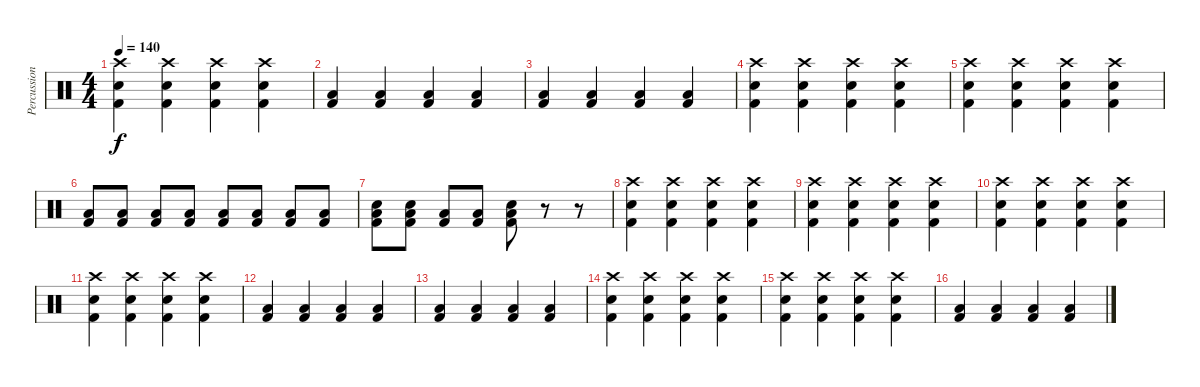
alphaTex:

\track ("Percussion" "Percussion") {instrument percussion}
\staff {score}
\articulation defaults
\ts (4 4)
\tempo 140
\clef neutral
\ks c
("Crash high (hit)" "Electric Snare (hit)" "Kick (hit) 2").4{dy f} ("Crash high (hit)" "Electric Snare (hit)" "Kick (hit) 2").4 ("Crash high (hit)" "Electric Snare (hit)" "Kick (hit) 2").4 ("Crash high (hit)" "Electric Snare (hit)" "Kick (hit) 2").4 |
("Low Tom (hit)" "Kick (hit) 2").4 ("Low Tom (hit)" "Kick (hit) 2").4 ("Low Tom (hit)" "Kick (hit) 2").4 ("Low Tom (hit)" "Kick (hit) 2").4 |
("Low Tom (hit)" "Kick (hit) 2").4 ("Low Tom (hit)" "Kick (hit) 2").4 ("Low Tom (hit)" "Kick (hit) 2").4 ("Low Tom (hit)" "Kick (hit) 2").4 |
("Crash high (hit)" "Electric Snare (hit)" "Kick (hit) 2").4 ("Crash high (hit)" "Electric Snare (hit)" "Kick (hit) 2").4 ("Crash high (hit)" "Electric Snare (hit)" "Kick (hit) 2").4 ("Crash high (hit)" "Electric Snare (hit)" "Kick (hit) 2").4 |
("Crash high (hit)" "Electric Snare (hit)" "Kick (hit) 2").4 ("Crash high (hit)" "Electric Snare (hit)" "Kick (hit) 2").4 ("Crash high (hit)" "Electric Snare (hit)" "Kick (hit) 2").4 ("Crash high (hit)" "Electric Snare (hit)" "Kick (hit) 2").4 |
("Low Tom (hit)" "Kick (hit) 2").8 ("Low Tom (hit)" "Kick (hit) 2").8 ("Low Tom (hit)" "Kick (hit) 2").8 ("Low Tom (hit)" "Kick (hit) 2").8 ("Low Tom (hit)" "Kick (hit) 2").8 ("Low Tom (hit)" "Kick (hit) 2").8 ("Low Tom (hit)" "Kick (hit) 2").8 ("Low Tom (hit)" "Kick (hit) 2").8 |
("Electric Snare (hit)" "Low Tom (hit)" "Kick (hit) 2").8 ("Electric Snare (hit)" "Low Tom (hit)" "Kick (hit) 2").8 ("Low Tom (hit)" "Kick (hit) 2").8 ("Low Tom (hit)" "Kick (hit) 2").8 ("Electric Snare (hit)" "Low Tom (hit)" "Kick (hit) 2").8 r.8 r.8 |
("Crash high (hit)" "Electric Snare (hit)" "Kick (hit) 2").4 ("Crash high (hit)" "Electric Snare (hit)" "Kick (hit) 2").4 ("Crash high (hit)" "Electric Snare (hit)" "Kick (hit) 2").4 ("Crash high (hit)" "Electric Snare (hit)" "Kick (hit) 2").4 |
("Crash high (hit)" "Electric Snare (hit)" "Kick (hit) 2").4 ("Crash high (hit)" "Electric Snare (hit)" "Kick (hit) 2").4 ("Crash high (hit)" "Electric Snare (hit)" "Kick (hit) 2").4 ("Crash high (hit)" "Electric Snare (hit)" "Kick (hit) 2").4 |
("Crash high (hit)" "Electric Snare (hit)" "Kick (hit) 2").4 ("Crash high (hit)" "Electric Snare (hit)" "Kick (hit) 2").4 ("Crash high (hit)" "Electric Snare (hit)" "Kick (hit) 2").4 ("Crash high (hit)" "Electric Snare (hit)" "Kick (hit) 2").4 |
("Crash high (hit)" "Electric Snare (hit)" "Kick (hit) 2").4 ("Crash high (hit)" "Electric Snare (hit)" "Kick (hit) 2").4 ("Crash high (hit)" "Electric Snare (hit)" "Kick (hit) 2").4 ("Crash high (hit)" "Electric Snare (hit)" "Kick (hit) 2").4 |
("Low Tom (hit)" "Kick (hit) 2").4 ("Low Tom (hit)" "Kick (hit) 2").4 ("Low Tom (hit)" "Kick (hit) 2").4 ("Low Tom (hit)" "Kick (hit) 2").4 |
("Low Tom (hit)" "Kick (hit) 2").4 ("Low Tom (hit)" "Kick (hit) 2").4 ("Low Tom (hit)" "Kick (hit) 2").4 ("Low Tom (hit)" "Kick (hit) 2").4 |
("Crash high (hit)" "Electric Snare (hit)" "Kick (hit) 2").4 ("Crash high (hit)" "Electric Snare (hit)" "Kick (hit) 2").4 ("Crash high (hit)" "Electric Snare (hit)" "Kick (hit) 2").4 ("Crash high (hit)" "Electric Snare (hit)" "Kick (hit) 2").4 |
("Crash high (hit)" "Electric Snare (hit)" "Kick (hit) 2").4 ("Crash high (hit)" "Electric Snare (hit)" "Kick (hit) 2").4 ("Crash high (hit)" "Electric Snare (hit)" "Kick (hit) 2").4 ("Crash high (hit)" "Electric Snare (hit)" "Kick (hit) 2").4 |
("Low Tom (hit)" "Kick (hit) 2").4 ("Low Tom (hit)" "Kick (hit) 2").4 ("Low Tom (hit)" "Kick (hit) 2").4 ("Low Tom (hit)" "Kick (hit) 2").4
